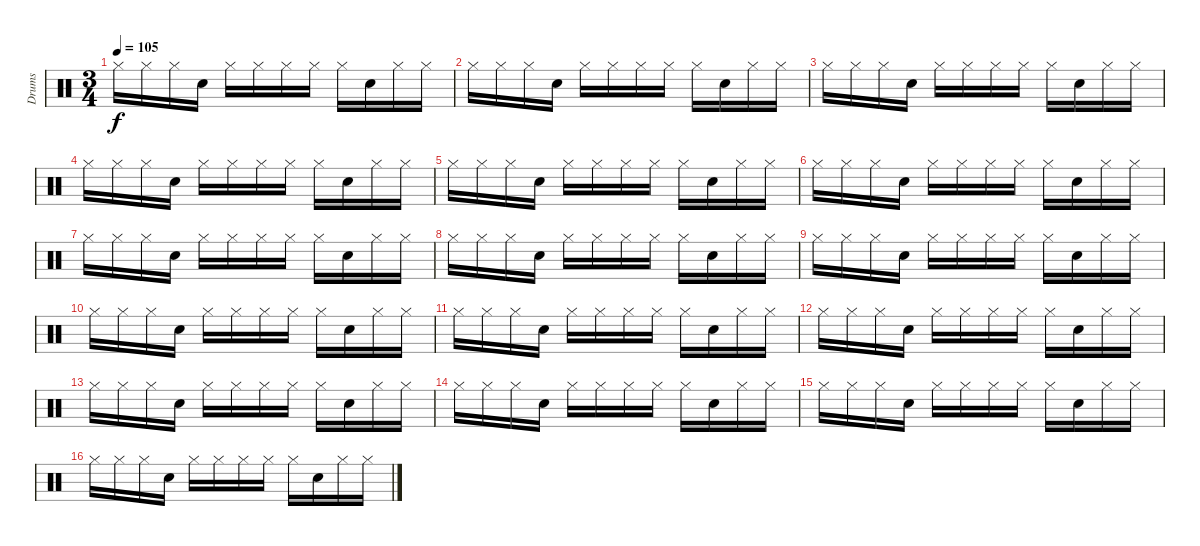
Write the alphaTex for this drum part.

\track ("Drums" "Drums") {instrument percussion}
\staff {score}
\articulation defaults
\ts (3 4)
\tempo 105
\clef neutral
\ks c "Hi-Hat (closed)".16{dy f} "Hi-Hat (closed)".16 "Hi-Hat (closed)".16 "Snare (hit) 2".16 "Hi-Hat (closed)".16 "Hi-Hat (closed)".16 "Hi-Hat (closed)".16 "Hi-Hat (closed)".16 "Hi-Hat (closed)".16 "Snare (hit) 2".16 "Hi-Hat (closed)".16 "Hi-Hat (closed)".16
|
"Hi-Hat (closed)".16 "Hi-Hat (closed)".16 "Hi-Hat (closed)".16 "Snare (hit) 2".16 "Hi-Hat (closed)".16 "Hi-Hat (closed)".16 "Hi-Hat (closed)".16 "Hi-Hat (closed)".16 "Hi-Hat (closed)".16 "Snare (hit) 2".16 "Hi-Hat (closed)".16 "Hi-Hat (closed)".16 |
"Hi-Hat (closed)".16 "Hi-Hat (closed)".16 "Hi-Hat (closed)".16 "Snare (hit) 2".16 "Hi-Hat (closed)".16 "Hi-Hat (closed)".16 "Hi-Hat (closed)".16 "Hi-Hat (closed)".16 "Hi-Hat (closed)".16 "Snare (hit) 2".16 "Hi-Hat (closed)".16 "Hi-Hat (closed)".16 |
"Hi-Hat (closed)".16 "Hi-Hat (closed)".16 "Hi-Hat (closed)".16 "Snare (hit) 2".16 "Hi-Hat (closed)".16 "Hi-Hat (closed)".16 "Hi-Hat (closed)".16 "Hi-Hat (closed)".16 "Hi-Hat (closed)".16 "Snare (hit) 2".16 "Hi-Hat (closed)".16 "Hi-Hat (closed)".16 |
"Hi-Hat (closed)".16 "Hi-Hat (closed)".16 "Hi-Hat (closed)".16 "Snare (hit) 2".16 "Hi-Hat (closed)".16 "Hi-Hat (closed)".16 "Hi-Hat (closed)".16 "Hi-Hat (closed)".16 "Hi-Hat (closed)".16 "Snare (hit) 2".16 "Hi-Hat (closed)".16 "Hi-Hat (closed)".16 |
"Hi-Hat (closed)".16 "Hi-Hat (closed)".16 "Hi-Hat (closed)".16 "Snare (hit) 2".16 "Hi-Hat (closed)".16 "Hi-Hat (closed)".16 "Hi-Hat (closed)".16 "Hi-Hat (closed)".16 "Hi-Hat (closed)".16 "Snare (hit) 2".16 "Hi-Hat (closed)".16 "Hi-Hat (closed)".16 |
"Hi-Hat (closed)".16 "Hi-Hat (closed)".16 "Hi-Hat (closed)".16 "Snare (hit) 2".16 "Hi-Hat (closed)".16 "Hi-Hat (closed)".16 "Hi-Hat (closed)".16 "Hi-Hat (closed)".16 "Hi-Hat (closed)".16 "Snare (hit) 2".16 "Hi-Hat (closed)".16 "Hi-Hat (closed)".16 |
"Hi-Hat (closed)".16 "Hi-Hat (closed)".16 "Hi-Hat (closed)".16 "Snare (hit) 2".16 "Hi-Hat (closed)".16 "Hi-Hat (closed)".16 "Hi-Hat (closed)".16 "Hi-Hat (closed)".16 "Hi-Hat (closed)".16 "Snare (hit) 2".16 "Hi-Hat (closed)".16 "Hi-Hat (closed)".16 |
"Hi-Hat (closed)".16 "Hi-Hat (closed)".16 "Hi-Hat (closed)".16 "Snare (hit) 2".16 "Hi-Hat (closed)".16 "Hi-Hat (closed)".16 "Hi-Hat (closed)".16 "Hi-Hat (closed)".16 "Hi-Hat (closed)".16 "Snare (hit) 2".16 "Hi-Hat (closed)".16 "Hi-Hat (closed)".16 |
"Hi-Hat (closed)".16 "Hi-Hat (closed)".16 "Hi-Hat (closed)".16 "Snare (hit) 2".16 "Hi-Hat (closed)".16 "Hi-Hat (closed)".16 "Hi-Hat (closed)".16 "Hi-Hat (closed)".16 "Hi-Hat (closed)".16 "Snare (hit) 2".16 "Hi-Hat (closed)".16 "Hi-Hat (closed)".16 |
"Hi-Hat (closed)".16 "Hi-Hat (closed)".16 "Hi-Hat (closed)".16 "Snare (hit) 2".16 "Hi-Hat (closed)".16 "Hi-Hat (closed)".16 "Hi-Hat (closed)".16 "Hi-Hat (closed)".16 "Hi-Hat (closed)".16 "Snare (hit) 2".16 "Hi-Hat (closed)".16 "Hi-Hat (closed)".16 |
"Hi-Hat (closed)".16 "Hi-Hat (closed)".16 "Hi-Hat (closed)".16 "Snare (hit) 2".16 "Hi-Hat (closed)".16 "Hi-Hat (closed)".16 "Hi-Hat (closed)".16 "Hi-Hat (closed)".16 "Hi-Hat (closed)".16 "Snare (hit) 2".16 "Hi-Hat (closed)".16 "Hi-Hat (closed)".16 |
"Hi-Hat (closed)".16 "Hi-Hat (closed)".16 "Hi-Hat (closed)".16 "Snare (hit) 2".16 "Hi-Hat (closed)".16 "Hi-Hat (closed)".16 "Hi-Hat (closed)".16 "Hi-Hat (closed)".16 "Hi-Hat (closed)".16 "Snare (hit) 2".16 "Hi-Hat (closed)".16 "Hi-Hat (closed)".16 |
"Hi-Hat (closed)".16 "Hi-Hat (closed)".16 "Hi-Hat (closed)".16 "Snare (hit) 2".16 "Hi-Hat (closed)".16 "Hi-Hat (closed)".16 "Hi-Hat (closed)".16 "Hi-Hat (closed)".16 "Hi-Hat (closed)".16 "Snare (hit) 2".16 "Hi-Hat (closed)".16 "Hi-Hat (closed)".16 |
"Hi-Hat (closed)".16 "Hi-Hat (closed)".16 "Hi-Hat (closed)".16 "Snare (hit) 2".16 "Hi-Hat (closed)".16 "Hi-Hat (closed)".16 "Hi-Hat (closed)".16 "Hi-Hat (closed)".16 "Hi-Hat (closed)".16 "Snare (hit) 2".16 "Hi-Hat (closed)".16 "Hi-Hat (closed)".16 |
"Hi-Hat (closed)".16 "Hi-Hat (closed)".16 "Hi-Hat (closed)".16 "Snare (hit) 2".16 "Hi-Hat (closed)".16 "Hi-Hat (closed)".16 "Hi-Hat (closed)".16 "Hi-Hat (closed)".16 "Hi-Hat (closed)".16 "Snare (hit) 2".16 "Hi-Hat (closed)".16 "Hi-Hat (closed)".16
